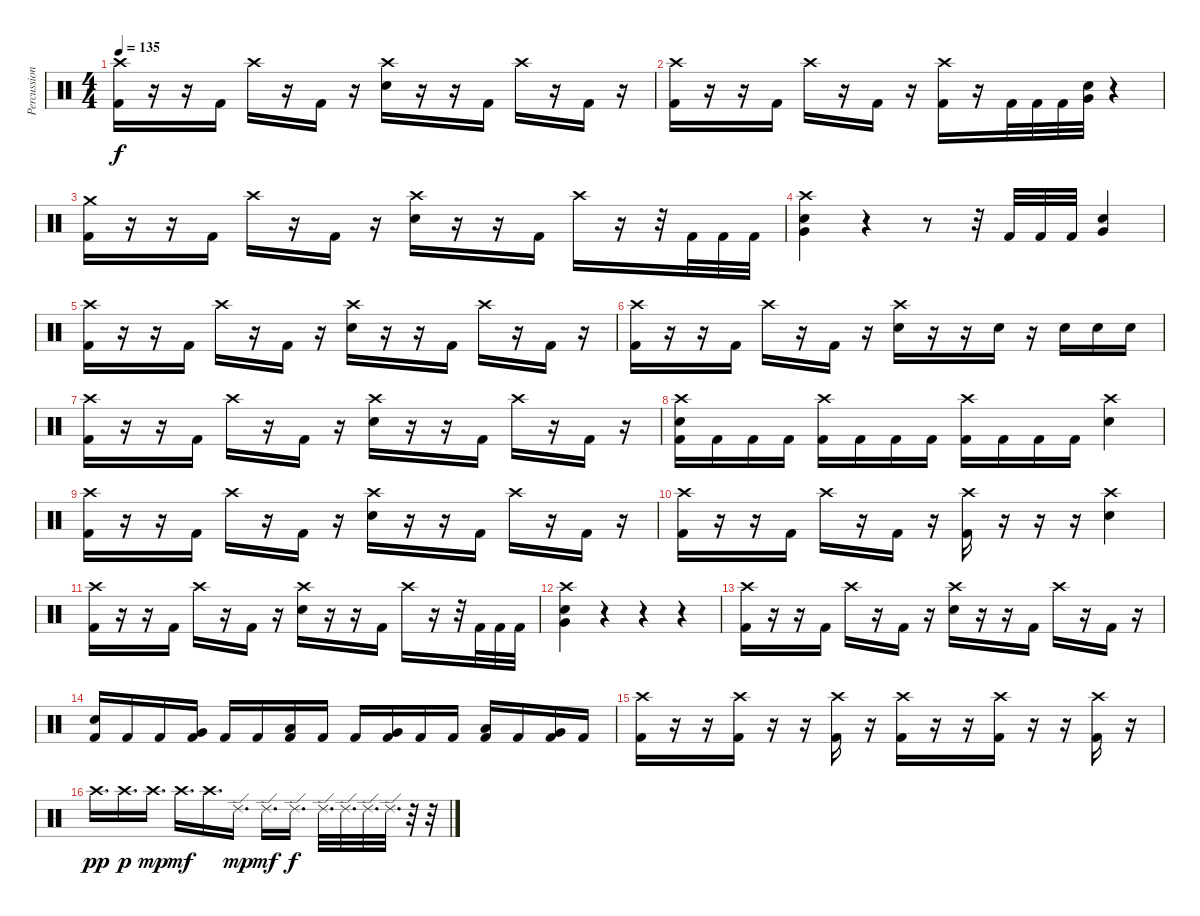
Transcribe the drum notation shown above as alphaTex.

\track ("Percussions" "Percussion") {instrument percussion}
\staff {score}
\articulation defaults
\ts (4 4)
\tempo 135
\clef neutral
\ks c
("Crash high (hit)" "Kick (hit) 2").16{dy f} r.16 r.16 "Kick (hit) 2".16 "Crash high (hit)".16 r.16 "Kick (hit) 2".16 r.16 ("Crash high (hit)" "Electric Snare (hit)").16 r.16 r.16 "Kick (hit) 2".16 "Crash high (hit)".16 r.16 "Kick (hit) 2".16 r.16 |
("Crash high (hit)" "Kick (hit) 2").16 r.16 r.16 "Kick (hit) 2".16 "Crash high (hit)".16 r.16 "Kick (hit) 2".16 r.16 ("Crash high (hit)" "Kick (hit) 2").16 r.16 "Kick (hit) 2".32 "Kick (hit) 2".32 "Kick (hit) 2".32 ("Very Low Tom (hit)" "Electric Snare (hit)").32 r.4 |
("Crash medium (hit)" "Kick (hit) 2").16 r.16 r.16 "Kick (hit) 2".16 "Crash high (hit)".16 r.16 "Kick (hit) 2".16 r.16 ("Crash high (hit)" "Electric Snare (hit)").16 r.16 r.16 "Kick (hit) 2".16 "Crash high (hit)".16 r.16 r.32 "Kick (hit) 2".32 "Kick (hit) 2".32 "Kick (hit) 2".32 |
("Crash high (hit)" "Very Low Tom (hit)" "Electric Snare (hit)").4 r.4 r.8 r.32 "Kick (hit) 2".32 "Kick (hit) 2".32 "Kick (hit) 2".32 ("Very Low Tom (hit)" "Electric Snare (hit)").4 |
("Crash high (hit)" "Kick (hit) 2").16 r.16 r.16 "Kick (hit) 2".16 "Crash high (hit)".16 r.16 "Kick (hit) 2".16 r.16 ("Crash high (hit)" "Electric Snare (hit)").16 r.16 r.16 "Kick (hit) 2".16 "Crash high (hit)".16 r.16 "Kick (hit) 2".16 r.16 |
("Crash high (hit)" "Kick (hit) 2").16 r.16 r.16 "Kick (hit) 2".16 "Crash high (hit)".16 r.16 "Kick (hit) 2".16 r.16 ("Crash high (hit)" "Electric Snare (hit)").16 r.16 r.16 "Electric Snare (hit)".16 r.16 "Electric Snare (hit)".16 "Electric Snare (hit)".16 "Electric Snare (hit)".16 |
("Crash high (hit)" "Kick (hit) 2").16 r.16 r.16 "Kick (hit) 2".16 "Crash high (hit)".16 r.16 "Kick (hit) 2".16 r.16 ("Crash high (hit)" "Electric Snare (hit)").16 r.16 r.16 "Kick (hit) 2".16 "Crash high (hit)".16 r.16 "Kick (hit) 2".16 r.16 |
("Crash high (hit)" "Electric Snare (hit)" "Kick (hit) 2").16 "Kick (hit) 2".16 "Kick (hit) 2".16 "Kick (hit) 2".16 ("Crash high (hit)" "Kick (hit) 2").16 "Kick (hit) 2".16 "Kick (hit) 2".16 "Kick (hit) 2".16 ("Crash high (hit)" "Kick (hit) 2").16 "Kick (hit) 2".16 "Kick (hit) 2".16 "Kick (hit) 2".16 ("Crash high (hit)" "Electric Snare (hit)").4 |
("Crash high (hit)" "Kick (hit) 2").16 r.16 r.16 "Kick (hit) 2".16 "Crash high (hit)".16 r.16 "Kick (hit) 2".16 r.16 ("Crash high (hit)" "Electric Snare (hit)").16 r.16 r.16 "Kick (hit) 2".16 "Crash high (hit)".16 r.16 "Kick (hit) 2".16 r.16 |
("Crash high (hit)" "Kick (hit) 2").16 r.16 r.16 "Kick (hit) 2".16 "Crash high (hit)".16 r.16 "Kick (hit) 2".16 r.16 ("Crash high (hit)" "Kick (hit) 2").16 r.16 r.16 r.16 ("Crash high (hit)" "Electric Snare (hit)").4 |
("Crash high (hit)" "Kick (hit) 2").16 r.16 r.16 "Kick (hit) 2".16 "Crash high (hit)".16 r.16 "Kick (hit) 2".16 r.16 ("Crash high (hit)" "Electric Snare (hit)").16 r.16 r.16 "Kick (hit) 2".16 "Crash high (hit)".16 r.16 r.32 "Kick (hit) 2".32 "Kick (hit) 2".32 "Kick (hit) 2".32 |
("Crash high (hit)" "Very Low Tom (hit)" "Electric Snare (hit)").4 r.4 r.4 r.4 |
("Crash high (hit)" "Kick (hit) 2").16 r.16 r.16 "Kick (hit) 2".16 "Crash high (hit)".16 r.16 "Kick (hit) 2".16 r.16 ("Crash high (hit)" "Electric Snare (hit)").16 r.16 r.16 "Kick (hit) 2".16 "Crash high (hit)".16 r.16 "Kick (hit) 2".16 r.16 |
("Electric Snare (hit)" "Kick (hit) 2").16 "Kick (hit) 2".16 "Kick (hit) 2".16 ("Very Low Tom (hit)" "Kick (hit) 2").16 "Kick (hit) 2".16 "Kick (hit) 2".16 ("Low Floor Tom (hit)" "Kick (hit) 2").16 "Kick (hit) 2".16 "Kick (hit) 2".16 ("Very Low Tom (hit)" "Kick (hit) 2").16 "Kick (hit) 2".16 "Kick (hit) 2".16 ("Low Floor Tom (hit)" "Kick (hit) 2").16 "Kick (hit) 2".16 ("Very Low Tom (hit)" "Kick (hit) 2").16 "Kick (hit) 2".16 |
("Crash high (hit)" "Kick (hit) 2").16 r.16 r.16 ("Crash high (hit)" "Kick (hit) 2").16 r.16 r.16 ("Crash high (hit)" "Kick (hit) 2").16 r.16 ("Crash high (hit)" "Kick (hit) 2").16 r.16 r.16 ("Crash high (hit)" "Kick (hit) 2").16 r.16 r.16 ("Crash high (hit)" "Kick (hit) 2").16 r.16 |
"Crash high (hit)".16{d dy pp} "Crash high (hit)".16{d dy p} "Crash high (hit)".16{d dy mp} "Crash high (hit)".16{d dy mf} "Crash high (hit)".16{d} "Ride (edge) 2".16{d dy mp} "Ride (edge) 2".16{d dy mf} "Ride (edge) 2".16{d dy f} "Ride (edge) 2".32{d} "Ride (edge) 2".32{d} "Ride (edge) 2".32{d} "Ride (edge) 2".32{d} r.32 r.32
